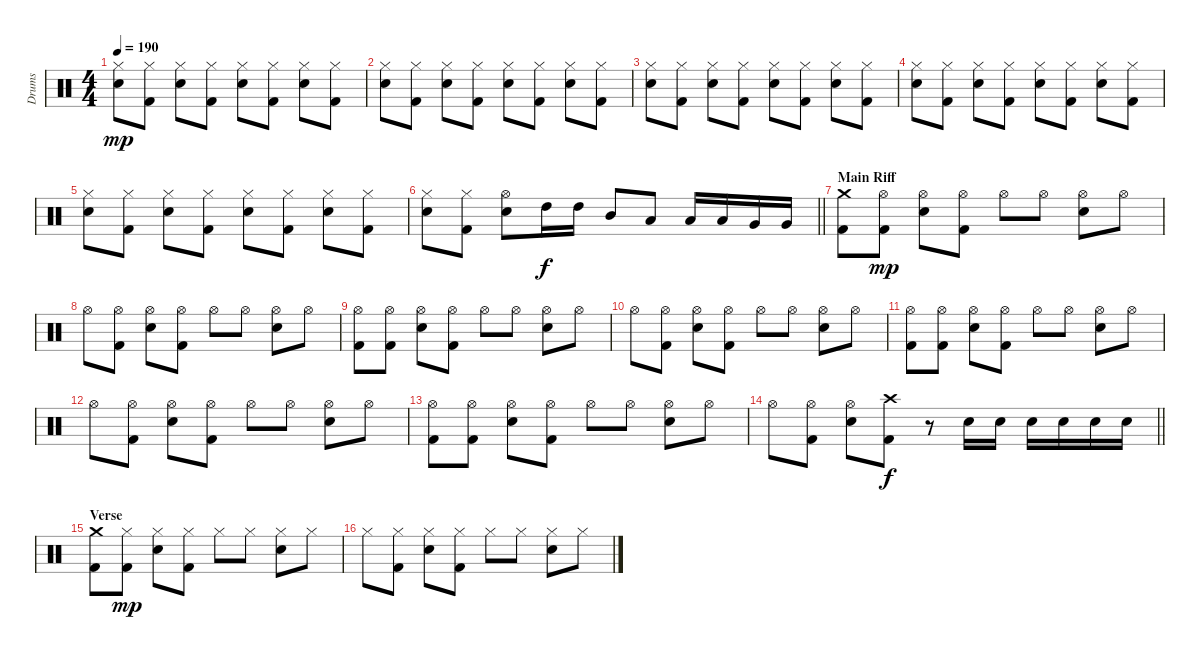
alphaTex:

\track ("Drums" "Drums") {instrument percussion}
\staff {score}
\articulation defaults
\ts (4 4)
\tempo 190
\clef neutral
\ks c
("Hi-Hat (closed)" "Snare (hit) 2").8{dy mp} ("Hi-Hat (closed)" "Kick (hit) 2").8 ("Hi-Hat (closed)" "Snare (hit) 2").8 ("Hi-Hat (closed)" "Kick (hit) 2").8 ("Hi-Hat (closed)" "Snare (hit) 2").8 ("Hi-Hat (closed)" "Kick (hit) 2").8 ("Hi-Hat (closed)" "Snare (hit) 2").8 ("Hi-Hat (closed)" "Kick (hit) 2").8 |
("Hi-Hat (closed)" "Snare (hit) 2").8 ("Hi-Hat (closed)" "Kick (hit) 2").8 ("Hi-Hat (closed)" "Snare (hit) 2").8 ("Hi-Hat (closed)" "Kick (hit) 2").8 ("Hi-Hat (closed)" "Snare (hit) 2").8 ("Hi-Hat (closed)" "Kick (hit) 2").8 ("Hi-Hat (closed)" "Snare (hit) 2").8 ("Hi-Hat (closed)" "Kick (hit) 2").8 |
("Hi-Hat (closed)" "Snare (hit) 2").8 ("Hi-Hat (closed)" "Kick (hit) 2").8 ("Hi-Hat (closed)" "Snare (hit) 2").8 ("Hi-Hat (closed)" "Kick (hit) 2").8 ("Hi-Hat (closed)" "Snare (hit) 2").8 ("Hi-Hat (closed)" "Kick (hit) 2").8 ("Hi-Hat (closed)" "Snare (hit) 2").8 ("Hi-Hat (closed)" "Kick (hit) 2").8 |
("Hi-Hat (closed)" "Snare (hit) 2").8 ("Hi-Hat (closed)" "Kick (hit) 2").8 ("Hi-Hat (closed)" "Snare (hit) 2").8 ("Hi-Hat (closed)" "Kick (hit) 2").8 ("Hi-Hat (closed)" "Snare (hit) 2").8 ("Hi-Hat (closed)" "Kick (hit) 2").8 ("Hi-Hat (closed)" "Snare (hit) 2").8 ("Hi-Hat (closed)" "Kick (hit) 2").8 |
("Hi-Hat (closed)" "Snare (hit) 2").8 ("Hi-Hat (closed)" "Kick (hit) 2").8 ("Hi-Hat (closed)" "Snare (hit) 2").8 ("Hi-Hat (closed)" "Kick (hit) 2").8 ("Hi-Hat (closed)" "Snare (hit) 2").8 ("Hi-Hat (closed)" "Kick (hit) 2").8 ("Hi-Hat (closed)" "Snare (hit) 2").8 ("Hi-Hat (closed)" "Kick (hit) 2").8 |
\barLineRight lightlight
("Hi-Hat (closed)" "Snare (hit) 2").8 ("Hi-Hat (closed)" "Kick (hit) 2").8 ("Hi-Hat (open)" "Snare (hit) 2").8 "High Tom (hit)".16{dy f} "High Tom (hit)".16 "Mid Tom (hit)".8 "Low Tom (hit)".8 "Low Tom (hit)".16 "Low Tom (hit)".16 "Very Low Tom (hit)".16 "Very Low Tom (hit)".16 |
\section ("" "Main Riff")
("Crash medium (hit)" "Kick (hit) 2").8 ("Hi-Hat (open)" "Kick (hit) 2").8{dy mp} ("Hi-Hat (open)" "Snare (hit) 2").8 ("Hi-Hat (open)" "Kick (hit) 2").8 "Hi-Hat (open)".8 "Hi-Hat (open)".8 ("Hi-Hat (open)" "Snare (hit) 2").8 "Hi-Hat (open)".8 |
"Hi-Hat (open)".8 ("Hi-Hat (open)" "Kick (hit) 2").8 ("Hi-Hat (open)" "Snare (hit) 2").8 ("Hi-Hat (open)" "Kick (hit) 2").8 "Hi-Hat (open)".8 "Hi-Hat (open)".8 ("Hi-Hat (open)" "Snare (hit) 2").8 "Hi-Hat (open)".8 |
("Hi-Hat (open)" "Kick (hit) 2").8 ("Hi-Hat (open)" "Kick (hit) 2").8 ("Hi-Hat (open)" "Snare (hit) 2").8 ("Hi-Hat (open)" "Kick (hit) 2").8 "Hi-Hat (open)".8 "Hi-Hat (open)".8 ("Hi-Hat (open)" "Snare (hit) 2").8 "Hi-Hat (open)".8 |
"Hi-Hat (open)".8 ("Hi-Hat (open)" "Kick (hit) 2").8 ("Hi-Hat (open)" "Snare (hit) 2").8 ("Hi-Hat (open)" "Kick (hit) 2").8 "Hi-Hat (open)".8 "Hi-Hat (open)".8 ("Hi-Hat (open)" "Snare (hit) 2").8 "Hi-Hat (open)".8 |
("Hi-Hat (open)" "Kick (hit) 2").8 ("Hi-Hat (open)" "Kick (hit) 2").8 ("Hi-Hat (open)" "Snare (hit) 2").8 ("Hi-Hat (open)" "Kick (hit) 2").8 "Hi-Hat (open)".8 "Hi-Hat (open)".8 ("Hi-Hat (open)" "Snare (hit) 2").8 "Hi-Hat (open)".8 |
"Hi-Hat (open)".8 ("Hi-Hat (open)" "Kick (hit) 2").8 ("Hi-Hat (open)" "Snare (hit) 2").8 ("Hi-Hat (open)" "Kick (hit) 2").8 "Hi-Hat (open)".8 "Hi-Hat (open)".8 ("Hi-Hat (open)" "Snare (hit) 2").8 "Hi-Hat (open)".8 |
("Hi-Hat (open)" "Kick (hit) 2").8 ("Hi-Hat (open)" "Kick (hit) 2").8 ("Hi-Hat (open)" "Snare (hit) 2").8 ("Hi-Hat (open)" "Kick (hit) 2").8 "Hi-Hat (open)".8 "Hi-Hat (open)".8 ("Hi-Hat (open)" "Snare (hit) 2").8 "Hi-Hat (open)".8 |
\barLineRight lightlight "Hi-Hat (open)".8
("Hi-Hat (open)" "Kick (hit) 2").8 ("Hi-Hat (open)" "Snare (hit) 2").8 ("Crash high (hit)" "Kick (hit) 2").8{dy f} r.8 "Snare (hit) 2".16 "Snare (hit) 2".16 "Snare (hit) 2".16 "Snare (hit) 2".16 "Snare (hit) 2".16 "Snare (hit) 2".16 |
\section ("" "Verse")
("Crash medium (hit)" "Kick (hit) 2").8 ("Hi-Hat (closed)" "Kick (hit) 2").8{dy mp} ("Hi-Hat (closed)" "Snare (hit) 2").8 ("Hi-Hat (closed)" "Kick (hit) 2").8 "Hi-Hat (closed)".8 "Hi-Hat (closed)".8 ("Hi-Hat (closed)" "Snare (hit) 2").8 "Hi-Hat (closed)".8 |
"Hi-Hat (closed)".8 ("Hi-Hat (closed)" "Kick (hit) 2").8 ("Hi-Hat (closed)" "Snare (hit) 2").8 ("Hi-Hat (closed)" "Kick (hit) 2").8 "Hi-Hat (closed)".8 "Hi-Hat (closed)".8 ("Hi-Hat (closed)" "Snare (hit) 2").8 "Hi-Hat (closed)".8
